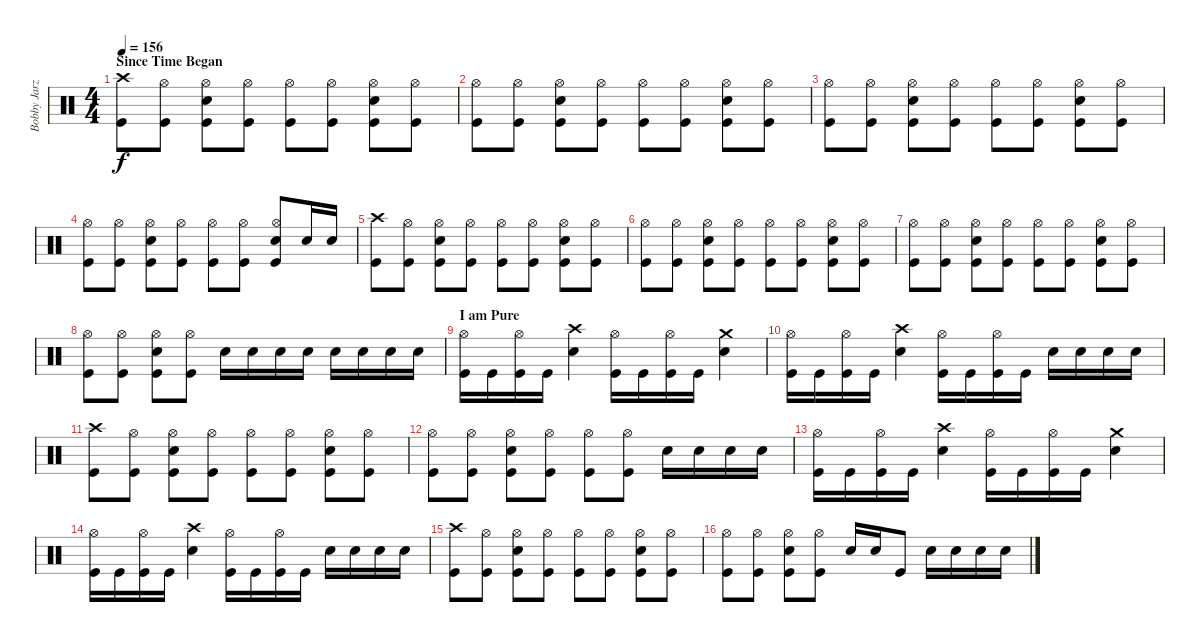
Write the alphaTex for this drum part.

\track ("Bobby Jarzombek" "Bobby Jarz") {instrument percussion}
\staff {score}
\articulation defaults
\ts (4 4)
\section ("" "Since Time Began")
\tempo 156
\clef neutral
\ks c
("Crash high (hit)" "Kick (hit)").8{dy f} ("Hi-Hat (open)" "Kick (hit)").8 ("Hi-Hat (open)" "Electric Snare (hit)" "Kick (hit)").8 ("Hi-Hat (open)" "Kick (hit)").8 ("Hi-Hat (open)" "Kick (hit)").8 ("Hi-Hat (open)" "Kick (hit)").8 ("Hi-Hat (open)" "Electric Snare (hit)" "Kick (hit)").8 ("Hi-Hat (open)" "Kick (hit)").8 |
("Hi-Hat (open)" "Kick (hit)").8 ("Hi-Hat (open)" "Kick (hit)").8 ("Hi-Hat (open)" "Electric Snare (hit)" "Kick (hit)").8 ("Hi-Hat (open)" "Kick (hit)").8 ("Hi-Hat (open)" "Kick (hit)").8 ("Hi-Hat (open)" "Kick (hit)").8 ("Hi-Hat (open)" "Electric Snare (hit)" "Kick (hit)").8 ("Hi-Hat (open)" "Kick (hit)").8 |
("Hi-Hat (open)" "Kick (hit)").8 ("Hi-Hat (open)" "Kick (hit)").8 ("Hi-Hat (open)" "Electric Snare (hit)" "Kick (hit)").8 ("Hi-Hat (open)" "Kick (hit)").8 ("Hi-Hat (open)" "Kick (hit)").8 ("Hi-Hat (open)" "Kick (hit)").8 ("Hi-Hat (open)" "Electric Snare (hit)" "Kick (hit)").8 ("Hi-Hat (open)" "Kick (hit)").8 |
("Hi-Hat (open)" "Kick (hit)").8 ("Hi-Hat (open)" "Kick (hit)").8 ("Hi-Hat (open)" "Electric Snare (hit)" "Kick (hit)").8 ("Hi-Hat (open)" "Kick (hit)").8 ("Hi-Hat (open)" "Kick (hit)").8 ("Hi-Hat (open)" "Kick (hit)").8 ("Hi-Hat (open)" "Electric Snare (hit)" "Kick (hit)").8 "Electric Snare (hit)".16 "Electric Snare (hit)".16 |
("Crash high (hit)" "Kick (hit)").8 ("Hi-Hat (open)" "Kick (hit)").8 ("Hi-Hat (open)" "Electric Snare (hit)" "Kick (hit)").8 ("Hi-Hat (open)" "Kick (hit)").8 ("Hi-Hat (open)" "Kick (hit)").8 ("Hi-Hat (open)" "Kick (hit)").8 ("Hi-Hat (open)" "Electric Snare (hit)" "Kick (hit)").8 ("Hi-Hat (open)" "Kick (hit)").8 |
("Hi-Hat (open)" "Kick (hit)").8 ("Hi-Hat (open)" "Kick (hit)").8 ("Hi-Hat (open)" "Electric Snare (hit)" "Kick (hit)").8 ("Hi-Hat (open)" "Kick (hit)").8 ("Hi-Hat (open)" "Kick (hit)").8 ("Hi-Hat (open)" "Kick (hit)").8 ("Hi-Hat (open)" "Electric Snare (hit)" "Kick (hit)").8 ("Hi-Hat (open)" "Kick (hit)").8 |
("Hi-Hat (open)" "Kick (hit)").8 ("Hi-Hat (open)" "Kick (hit)").8 ("Hi-Hat (open)" "Electric Snare (hit)" "Kick (hit)").8 ("Hi-Hat (open)" "Kick (hit)").8 ("Hi-Hat (open)" "Kick (hit)").8 ("Hi-Hat (open)" "Kick (hit)").8 ("Hi-Hat (open)" "Electric Snare (hit)" "Kick (hit)").8 ("Hi-Hat (open)" "Kick (hit)").8 |
("Hi-Hat (open)" "Kick (hit)").8 ("Hi-Hat (open)" "Kick (hit)").8 ("Hi-Hat (open)" "Electric Snare (hit)" "Kick (hit)").8 ("Hi-Hat (open)" "Kick (hit)").8 "Electric Snare (hit)".16 "Electric Snare (hit)".16 "Electric Snare (hit)".16 "Electric Snare (hit)".16 "Electric Snare (hit)".16 "Electric Snare (hit)".16 "Electric Snare (hit)".16 "Electric Snare (hit)".16 |
\section ("" "I am Pure")
("Hi-Hat (open)" "Kick (hit)").16 "Kick (hit)".16 ("Hi-Hat (open)" "Kick (hit)").16 "Kick (hit)".16 ("Crash high (hit)" "Electric Snare (hit)").4 ("Hi-Hat (open)" "Kick (hit)").16 "Kick (hit)".16 ("Hi-Hat (open)" "Kick (hit)").16 "Kick (hit)".16 ("Crash medium (hit)" "Electric Snare (hit)").4 |
("Hi-Hat (open)" "Kick (hit)").16 "Kick (hit)".16 ("Hi-Hat (open)" "Kick (hit)").16 "Kick (hit)".16 ("Crash high (hit)" "Electric Snare (hit)").4 ("Hi-Hat (open)" "Kick (hit)").16 "Kick (hit)".16 ("Hi-Hat (open)" "Kick (hit)").16 "Kick (hit)".16 "Electric Snare (hit)".16 "Electric Snare (hit)".16 "Electric Snare (hit)".16 "Electric Snare (hit)".16 |
("Crash high (hit)" "Kick (hit)").8 ("Hi-Hat (open)" "Kick (hit)").8 ("Hi-Hat (open)" "Electric Snare (hit)" "Kick (hit)").8 ("Hi-Hat (open)" "Kick (hit)").8 ("Hi-Hat (open)" "Kick (hit)").8 ("Hi-Hat (open)" "Kick (hit)").8 ("Hi-Hat (open)" "Electric Snare (hit)" "Kick (hit)").8 ("Hi-Hat (open)" "Kick (hit)").8 |
("Hi-Hat (open)" "Kick (hit)").8 ("Hi-Hat (open)" "Kick (hit)").8 ("Hi-Hat (open)" "Electric Snare (hit)" "Kick (hit)").8 ("Hi-Hat (open)" "Kick (hit)").8 ("Hi-Hat (open)" "Kick (hit)").8 ("Hi-Hat (open)" "Kick (hit)").8 "Electric Snare (hit)".16 "Electric Snare (hit)".16 "Electric Snare (hit)".16 "Electric Snare (hit)".16 |
("Hi-Hat (open)" "Kick (hit)").16 "Kick (hit)".16 ("Hi-Hat (open)" "Kick (hit)").16 "Kick (hit)".16 ("Crash high (hit)" "Electric Snare (hit)").4 ("Hi-Hat (open)" "Kick (hit)").16 "Kick (hit)".16 ("Hi-Hat (open)" "Kick (hit)").16 "Kick (hit)".16 ("Crash medium (hit)" "Electric Snare (hit)").4 |
("Hi-Hat (open)" "Kick (hit)").16 "Kick (hit)".16 ("Hi-Hat (open)" "Kick (hit)").16 "Kick (hit)".16 ("Crash high (hit)" "Electric Snare (hit)").4 ("Hi-Hat (open)" "Kick (hit)").16 "Kick (hit)".16 ("Hi-Hat (open)" "Kick (hit)").16 "Kick (hit)".16 "Electric Snare (hit)".16 "Electric Snare (hit)".16 "Electric Snare (hit)".16 "Electric Snare (hit)".16 |
("Crash high (hit)" "Kick (hit)").8 ("Hi-Hat (open)" "Kick (hit)").8 ("Hi-Hat (open)" "Electric Snare (hit)" "Kick (hit)").8 ("Hi-Hat (open)" "Kick (hit)").8 ("Hi-Hat (open)" "Kick (hit)").8 ("Hi-Hat (open)" "Kick (hit)").8 ("Hi-Hat (open)" "Electric Snare (hit)" "Kick (hit)").8 ("Hi-Hat (open)" "Kick (hit)").8 |
("Hi-Hat (open)" "Kick (hit)").8 ("Hi-Hat (open)" "Kick (hit)").8 ("Hi-Hat (open)" "Electric Snare (hit)" "Kick (hit)").8 ("Hi-Hat (open)" "Kick (hit)").8 "Electric Snare (hit)".16 "Electric Snare (hit)".16 "Kick (hit)".8 "Electric Snare (hit)".16 "Electric Snare (hit)".16 "Electric Snare (hit)".16 "Electric Snare (hit)".16
